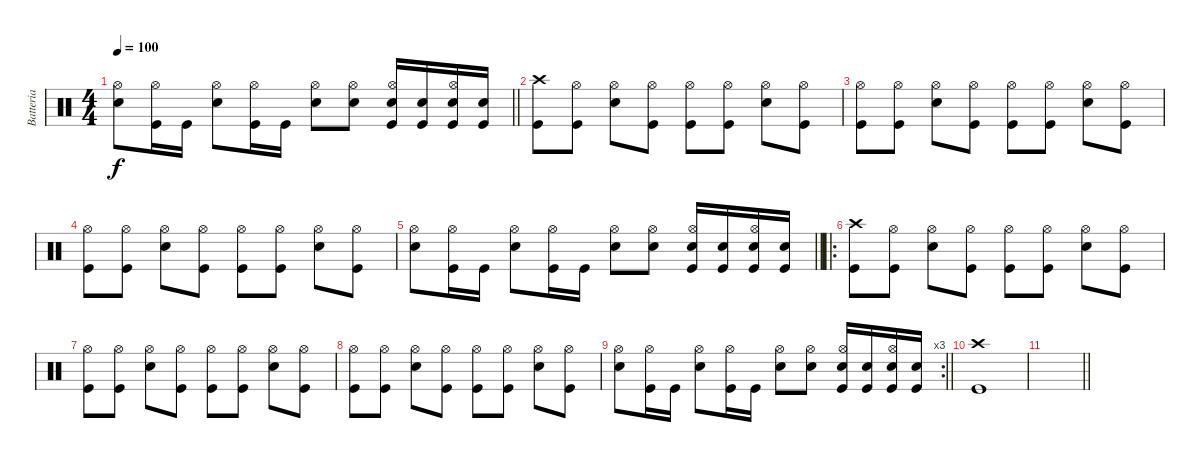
\track ("Batteria" "Batteria") {instrument percussion}
\staff {score}
\articulation defaults
\ts (4 4)
\tempo 100
\clef neutral
\barLineRight lightlight
\ks c
("Snare (hit) 2" "Hi-Hat (open)").8{dy f} ("Kick (hit)" "Hi-Hat (open)").16 "Kick (hit)".16 ("Snare (hit) 2" "Hi-Hat (open)").8 ("Kick (hit)" "Hi-Hat (open)").16 "Kick (hit)".16 ("Snare (hit) 2" "Hi-Hat (open)").8 ("Snare (hit) 2" "Hi-Hat (open)").8 ("Kick (hit)" "Hi-Hat (open)" "Snare (hit) 2").16 ("Kick (hit)" "Snare (hit) 2").16 ("Kick (hit)" "Hi-Hat (open)" "Snare (hit) 2").16 ("Kick (hit)" "Snare (hit) 2").16 |
("Kick (hit)" "Crash high (hit)").8 ("Kick (hit)" "Hi-Hat (open)").8 ("Snare (hit) 2" "Hi-Hat (open)").8 ("Kick (hit)" "Hi-Hat (open)").8 ("Kick (hit)" "Hi-Hat (open)").8 ("Kick (hit)" "Hi-Hat (open)").8 ("Snare (hit) 2" "Hi-Hat (open)").8 ("Kick (hit)" "Hi-Hat (open)").8 |
("Kick (hit)" "Hi-Hat (open)").8 ("Kick (hit)" "Hi-Hat (open)").8 ("Snare (hit) 2" "Hi-Hat (open)").8 ("Kick (hit)" "Hi-Hat (open)").8 ("Kick (hit)" "Hi-Hat (open)").8 ("Kick (hit)" "Hi-Hat (open)").8 ("Snare (hit) 2" "Hi-Hat (open)").8 ("Kick (hit)" "Hi-Hat (open)").8 |
("Kick (hit)" "Hi-Hat (open)").8 ("Kick (hit)" "Hi-Hat (open)").8 ("Snare (hit) 2" "Hi-Hat (open)").8 ("Kick (hit)" "Hi-Hat (open)").8 ("Kick (hit)" "Hi-Hat (open)").8 ("Kick (hit)" "Hi-Hat (open)").8 ("Snare (hit) 2" "Hi-Hat (open)").8 ("Kick (hit)" "Hi-Hat (open)").8 |
\barLineRight lightlight
("Snare (hit) 2" "Hi-Hat (open)").8 ("Kick (hit)" "Hi-Hat (open)").16 "Kick (hit)".16 ("Snare (hit) 2" "Hi-Hat (open)").8 ("Kick (hit)" "Hi-Hat (open)").16 "Kick (hit)".16 ("Snare (hit) 2" "Hi-Hat (open)").8 ("Snare (hit) 2" "Hi-Hat (open)").8 ("Kick (hit)" "Hi-Hat (open)" "Snare (hit) 2").16 ("Kick (hit)" "Snare (hit) 2").16 ("Kick (hit)" "Hi-Hat (open)" "Snare (hit) 2").16 ("Kick (hit)" "Snare (hit) 2").16 |
\ro
("Kick (hit)" "Crash high (hit)").8 ("Kick (hit)" "Hi-Hat (open)").8 ("Snare (hit) 2" "Hi-Hat (open)").8 ("Kick (hit)" "Hi-Hat (open)").8 ("Kick (hit)" "Hi-Hat (open)").8 ("Kick (hit)" "Hi-Hat (open)").8 ("Snare (hit) 2" "Hi-Hat (open)").8 ("Kick (hit)" "Hi-Hat (open)").8 |
("Kick (hit)" "Hi-Hat (open)").8 ("Kick (hit)" "Hi-Hat (open)").8 ("Snare (hit) 2" "Hi-Hat (open)").8 ("Kick (hit)" "Hi-Hat (open)").8 ("Kick (hit)" "Hi-Hat (open)").8 ("Kick (hit)" "Hi-Hat (open)").8 ("Snare (hit) 2" "Hi-Hat (open)").8 ("Kick (hit)" "Hi-Hat (open)").8 |
("Kick (hit)" "Hi-Hat (open)").8 ("Kick (hit)" "Hi-Hat (open)").8 ("Snare (hit) 2" "Hi-Hat (open)").8 ("Kick (hit)" "Hi-Hat (open)").8 ("Kick (hit)" "Hi-Hat (open)").8 ("Kick (hit)" "Hi-Hat (open)").8 ("Snare (hit) 2" "Hi-Hat (open)").8 ("Kick (hit)" "Hi-Hat (open)").8 |
\rc 3
\barLineRight lightlight
("Snare (hit) 2" "Hi-Hat (open)").8 ("Kick (hit)" "Hi-Hat (open)").16 "Kick (hit)".16 ("Snare (hit) 2" "Hi-Hat (open)").8 ("Kick (hit)" "Hi-Hat (open)").16 "Kick (hit)".16 ("Snare (hit) 2" "Hi-Hat (open)").8 ("Snare (hit) 2" "Hi-Hat (open)").8 ("Kick (hit)" "Hi-Hat (open)" "Snare (hit) 2").16 ("Kick (hit)" "Snare (hit) 2").16 ("Kick (hit)" "Hi-Hat (open)" "Snare (hit) 2").16 ("Kick (hit)" "Snare (hit) 2").16 |
("Kick (hit)" "Crash high (hit)").1 |
\barLineRight lightlight
